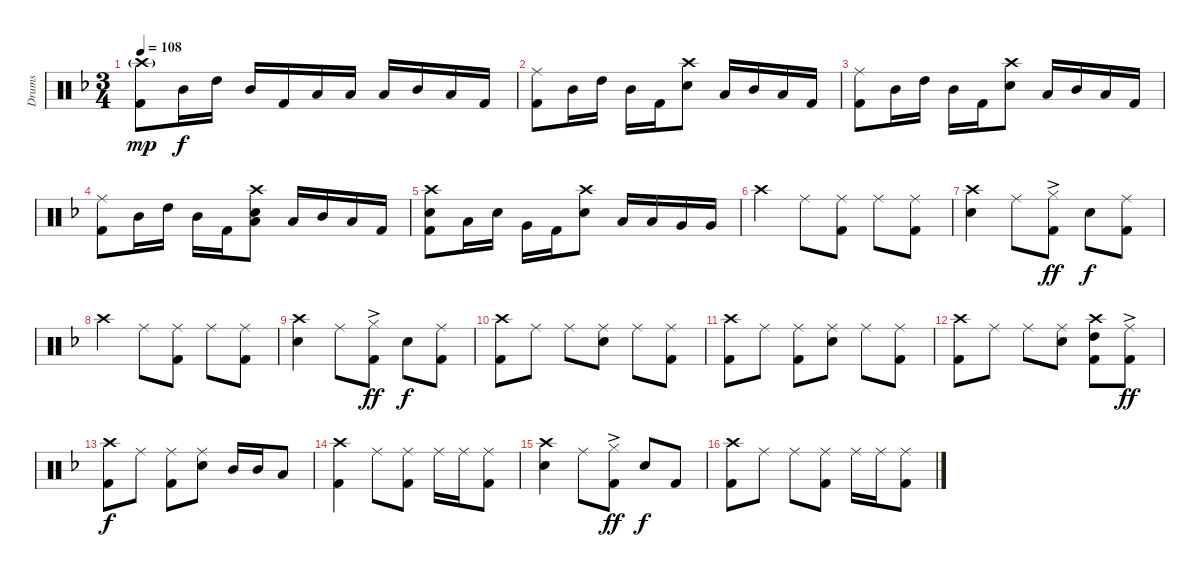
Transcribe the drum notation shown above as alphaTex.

\track ("Drums" "Drums") {instrument percussion}
\staff {score}
\articulation defaults
\ts (3 4)
\tempo 108
\clef neutral
\ks dminor
("Crash high (hit)"{g} "Kick (hit) 2").8{dy mp} "Mid Tom (hit)".16{dy f} "High Tom (hit)".16 "Mid Tom (hit)".16 "Kick (hit) 2".16 "Low Tom (hit)".16 "Low Tom (hit)".16 "Low Tom (hit)".16 "Mid Tom (hit)".16 "Low Tom (hit)".16 "Kick (hit) 2".16 |
("Ride (middle)" "Kick (hit) 2").8 "Mid Tom (hit)".16 "High Tom (hit)".16 "Mid Tom (hit)".16 "Kick (hit) 2".16 ("Crash high (hit)" "Snare (hit) 2").8 "Low Tom (hit)".16 "Mid Tom (hit)".16 "Low Tom (hit)".16 "Kick (hit) 2".16 |
("Ride (middle)" "Kick (hit) 2").8 "Mid Tom (hit)".16 "High Tom (hit)".16 "Mid Tom (hit)".16 "Kick (hit) 2".16 ("Crash high (hit)" "Snare (hit) 2").8 "Low Tom (hit)".16 "Mid Tom (hit)".16 "Low Tom (hit)".16 "Kick (hit) 2".16 |
("Ride (middle)" "Kick (hit) 2").8 "Mid Tom (hit)".16 "High Tom (hit)".16 "Mid Tom (hit)".16 "Kick (hit) 2".16 ("Crash high (hit)" "Snare (hit) 2" "Low Tom (hit)").8 "Low Tom (hit)".16 "Mid Tom (hit)".16 "Low Tom (hit)".16 "Kick (hit) 2".16 |
("Crash high (hit)" "Snare (hit) 2" "Kick (hit) 2").8 "Low Tom (hit)".16 "Snare (hit) 2".16 "Very Low Tom (hit)".16 "Kick (hit) 2".16 ("Crash high (hit)" "Snare (hit) 2").8 "Low Tom (hit)".16 "Low Tom (hit)".16 "Very Low Tom (hit)".16 "Very Low Tom (hit)".16 |
"Crash high (hit)".4 "Ride (middle)".8 ("Ride (middle)" "Kick (hit) 2").8 "Ride (middle)".8 ("Ride (middle)" "Kick (hit) 2").8 |
("Crash high (hit)" "Snare (hit) 2").4 "Ride (middle)".8 ("Hi-Hat (closed)"{ac} "Kick (hit) 2").8{dy ff} "Snare (hit) 2".8{dy f} ("Ride (middle)" "Kick (hit) 2").8 |
"Crash high (hit)".4 "Ride (middle)".8 ("Ride (middle)" "Kick (hit) 2").8 "Ride (middle)".8 ("Ride (middle)" "Kick (hit) 2").8 |
("Crash high (hit)" "Snare (hit) 2").4 "Ride (middle)".8 ("Hi-Hat (closed)"{ac} "Kick (hit) 2").8{dy ff} "Snare (hit) 2".8{dy f} ("Ride (middle)" "Kick (hit) 2").8 |
("Crash high (hit)" "Kick (hit) 2").8 "Ride (middle)".8 "Ride (middle)".8 ("Ride (middle)" "Snare (hit) 2").8 "Ride (middle)".8 ("Ride (middle)" "Kick (hit) 2").8 |
("Crash high (hit)" "Kick (hit) 2").8 "Ride (middle)".8 ("Ride (middle)" "Kick (hit) 2").8 ("Ride (middle)" "Snare (hit) 2").8 "Ride (middle)".8 ("Ride (middle)" "Kick (hit) 2").8 |
("Crash high (hit)" "Kick (hit) 2").8 "Ride (middle)".8 "Ride (middle)".8 ("Ride (middle)" "Snare (hit) 2").8 ("Crash high (hit)" "High Tom (hit)" "Kick (hit) 2").8 ("Ride (middle)"{ac} "Kick (hit) 2").8{dy ff} |
("Crash high (hit)" "Kick (hit) 2").8{dy f} "Ride (middle)".8 ("Ride (middle)" "Kick (hit) 2").8 ("Ride (middle)" "Snare (hit) 2").8 "Mid Tom (hit)".16 "Mid Tom (hit)".16 "Low Tom (hit)".8 |
("Crash high (hit)" "Kick (hit) 2").4 "Ride (middle)".8 ("Ride (middle)" "Kick (hit) 2").8 "Ride (middle)".16 "Ride (middle)".16 ("Ride (middle)" "Kick (hit) 2").8 |
("Crash high (hit)" "Snare (hit) 2").4 "Ride (middle)".8 ("Hi-Hat (closed)"{ac} "Kick (hit) 2").8{dy ff} "Snare (hit) 2".8{dy f} "Kick (hit) 2".8 |
("Crash high (hit)" "Kick (hit) 2").8 "Ride (middle)".8 "Ride (middle)".8 ("Ride (middle)" "Kick (hit) 2").8 "Ride (middle)".16 "Ride (middle)".16 ("Ride (middle)" "Kick (hit) 2").8
